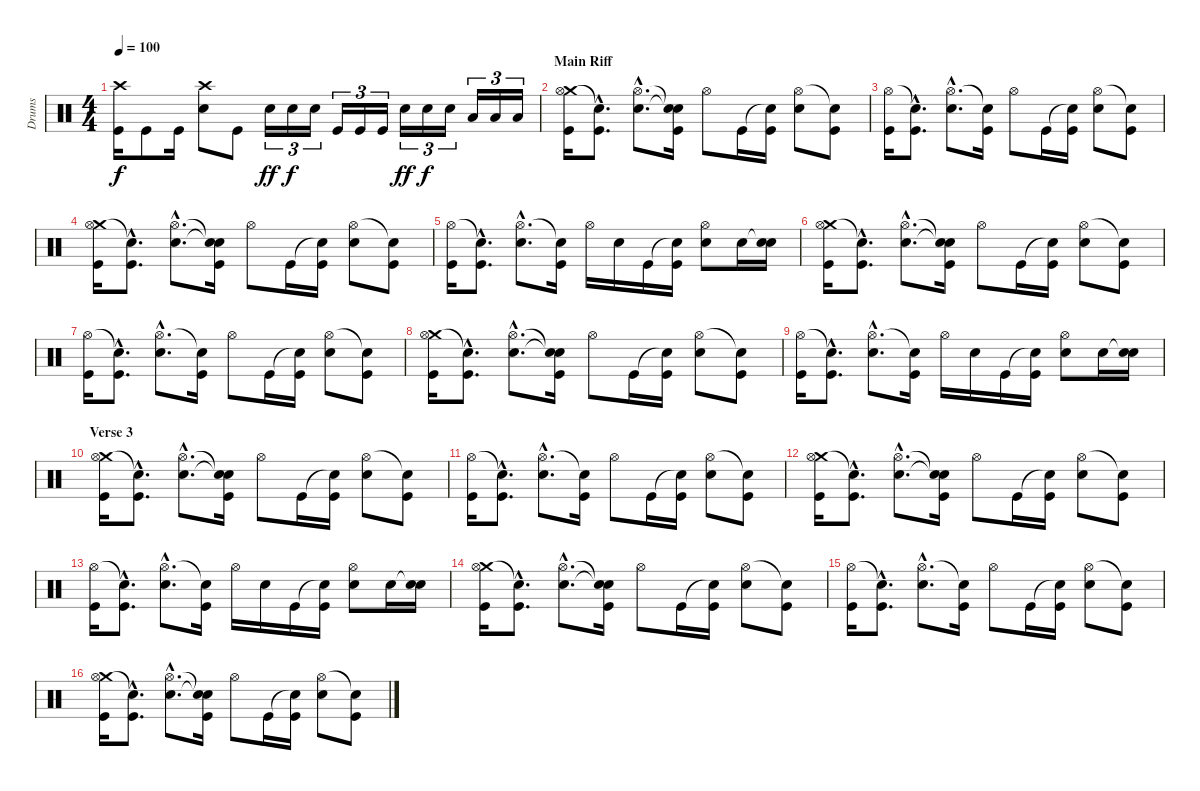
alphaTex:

\track ("Drums" "Drums") {instrument percussion}
\staff {score}
\articulation defaults
\ts (4 4)
\tempo 100
\clef neutral
\ks c
("Crash high (hit)" "Kick (hit)").16{dy f} "Kick (hit)".8 "Kick (hit)".16 ("Crash high (hit)" "Electric Snare (hit)").8 "Kick (hit)".8 "Electric Snare (hit)".16{tu (3 2) dy ff} "Electric Snare (hit)".16{tu (3 2) dy f} "Electric Snare (hit)".16{tu (3 2)} "Kick (hit)".16{tu (3 2)} "Kick (hit)".16{tu (3 2)} "Kick (hit)".16{tu (3 2)} "Electric Snare (hit)".16{tu (3 2) dy ff} "Electric Snare (hit)".16{tu (3 2) dy f} "Electric Snare (hit)".16{tu (3 2)} "Low Tom (hit)".16{tu (3 2)} "Low Tom (hit)".16{tu (3 2)} "Low Tom (hit)".16{tu (3 2)} |
\section ("" "Main Riff")
("Crash medium (hit)" "Hi-Hat (open)" "Kick (hit)").16 ("Snare (hit)"{hac t} "Kick (hit)"{hac}).8{d} ("Hi-Hat (open)"{hac} "Electric Snare (hit)"{hac}).8{d} ("Snare (hit)"{t} "Snare (hit)"{t} "Kick (hit)").16 "Hi-Hat (open)".8 "Kick (hit)".16 ("Snare (hit)"{t} "Kick (hit)").16 ("Hi-Hat (open)" "Electric Snare (hit)").8 ("Snare (hit)"{t} "Kick (hit)").8 |
("Hi-Hat (open)" "Kick (hit)").16 ("Snare (hit)"{hac t} "Kick (hit)"{hac}).8{d} ("Hi-Hat (open)"{hac} "Electric Snare (hit)"{hac}).8{d} ("Snare (hit)"{t} "Kick (hit)").16 "Hi-Hat (open)".8 "Kick (hit)".16 ("Snare (hit)"{t} "Kick (hit)").16 ("Hi-Hat (open)" "Electric Snare (hit)").8 ("Snare (hit)"{t} "Kick (hit)").8 |
("Crash medium (hit)" "Hi-Hat (open)" "Kick (hit)").16 ("Snare (hit)"{hac t} "Kick (hit)"{hac}).8{d} ("Hi-Hat (open)"{hac} "Electric Snare (hit)"{hac}).8{d} ("Snare (hit)"{t} "Snare (hit)"{t} "Kick (hit)").16 "Hi-Hat (open)".8 "Kick (hit)".16 ("Snare (hit)"{t} "Kick (hit)").16 ("Hi-Hat (open)" "Electric Snare (hit)").8 ("Snare (hit)"{t} "Kick (hit)").8 |
("Hi-Hat (open)" "Kick (hit)").16 ("Snare (hit)"{hac t} "Kick (hit)"{hac}).8{d} ("Hi-Hat (open)"{hac} "Electric Snare (hit)"{hac}).8{d} ("Snare (hit)"{t} "Kick (hit)").16 "Hi-Hat (open)".16 "Electric Snare (hit)".16 "Kick (hit)".16 ("Snare (hit)"{t} "Kick (hit)").16 ("Hi-Hat (open)" "Electric Snare (hit)").8 "Electric Snare (hit)".16 ("Snare (hit)"{t} "Electric Snare (hit)").16 |
("Crash medium (hit)" "Hi-Hat (open)" "Kick (hit)").16 ("Snare (hit)"{hac t} "Kick (hit)"{hac}).8{d} ("Hi-Hat (open)"{hac} "Electric Snare (hit)"{hac}).8{d} ("Snare (hit)"{t} "Snare (hit)"{t} "Kick (hit)").16 "Hi-Hat (open)".8 "Kick (hit)".16 ("Snare (hit)"{t} "Kick (hit)").16 ("Hi-Hat (open)" "Electric Snare (hit)").8 ("Snare (hit)"{t} "Kick (hit)").8 |
("Hi-Hat (open)" "Kick (hit)").16 ("Snare (hit)"{hac t} "Kick (hit)"{hac}).8{d} ("Hi-Hat (open)"{hac} "Electric Snare (hit)"{hac}).8{d} ("Snare (hit)"{t} "Kick (hit)").16 "Hi-Hat (open)".8 "Kick (hit)".16 ("Snare (hit)"{t} "Kick (hit)").16 ("Hi-Hat (open)" "Electric Snare (hit)").8 ("Snare (hit)"{t} "Kick (hit)").8 |
("Crash medium (hit)" "Hi-Hat (open)" "Kick (hit)").16 ("Snare (hit)"{hac t} "Kick (hit)"{hac}).8{d} ("Hi-Hat (open)"{hac} "Electric Snare (hit)"{hac}).8{d} ("Snare (hit)"{t} "Snare (hit)"{t} "Kick (hit)").16 "Hi-Hat (open)".8 "Kick (hit)".16 ("Snare (hit)"{t} "Kick (hit)").16 ("Hi-Hat (open)" "Electric Snare (hit)").8 ("Snare (hit)"{t} "Kick (hit)").8 |
("Hi-Hat (open)" "Kick (hit)").16 ("Snare (hit)"{hac t} "Kick (hit)"{hac}).8{d} ("Hi-Hat (open)"{hac} "Electric Snare (hit)"{hac}).8{d} ("Snare (hit)"{t} "Kick (hit)").16 "Hi-Hat (open)".16 "Electric Snare (hit)".16 "Kick (hit)".16 ("Snare (hit)"{t} "Kick (hit)").16 ("Hi-Hat (open)" "Electric Snare (hit)").8 "Electric Snare (hit)".16 ("Snare (hit)"{t} "Electric Snare (hit)").16 |
\section ("" "Verse 3")
("Crash medium (hit)" "Hi-Hat (open)" "Kick (hit)").16 ("Snare (hit)"{hac t} "Kick (hit)"{hac}).8{d} ("Hi-Hat (open)"{hac} "Electric Snare (hit)"{hac}).8{d} ("Snare (hit)"{t} "Snare (hit)"{t} "Kick (hit)").16 "Hi-Hat (open)".8 "Kick (hit)".16 ("Snare (hit)"{t} "Kick (hit)").16 ("Hi-Hat (open)" "Electric Snare (hit)").8 ("Snare (hit)"{t} "Kick (hit)").8 |
("Hi-Hat (open)" "Kick (hit)").16 ("Snare (hit)"{hac t} "Kick (hit)"{hac}).8{d} ("Hi-Hat (open)"{hac} "Electric Snare (hit)"{hac}).8{d} ("Snare (hit)"{t} "Kick (hit)").16 "Hi-Hat (open)".8 "Kick (hit)".16 ("Snare (hit)"{t} "Kick (hit)").16 ("Hi-Hat (open)" "Electric Snare (hit)").8 ("Snare (hit)"{t} "Kick (hit)").8 |
("Crash medium (hit)" "Hi-Hat (open)" "Kick (hit)").16 ("Snare (hit)"{hac t} "Kick (hit)"{hac}).8{d} ("Hi-Hat (open)"{hac} "Electric Snare (hit)"{hac}).8{d} ("Snare (hit)"{t} "Snare (hit)"{t} "Kick (hit)").16 "Hi-Hat (open)".8 "Kick (hit)".16 ("Snare (hit)"{t} "Kick (hit)").16 ("Hi-Hat (open)" "Electric Snare (hit)").8 ("Snare (hit)"{t} "Kick (hit)").8 |
("Hi-Hat (open)" "Kick (hit)").16 ("Snare (hit)"{hac t} "Kick (hit)"{hac}).8{d} ("Hi-Hat (open)"{hac} "Electric Snare (hit)"{hac}).8{d} ("Snare (hit)"{t} "Kick (hit)").16 "Hi-Hat (open)".16 "Electric Snare (hit)".16 "Kick (hit)".16 ("Snare (hit)"{t} "Kick (hit)").16 ("Hi-Hat (open)" "Electric Snare (hit)").8 "Electric Snare (hit)".16 ("Snare (hit)"{t} "Electric Snare (hit)").16 |
("Crash medium (hit)" "Hi-Hat (open)" "Kick (hit)").16 ("Snare (hit)"{hac t} "Kick (hit)"{hac}).8{d} ("Hi-Hat (open)"{hac} "Electric Snare (hit)"{hac}).8{d} ("Snare (hit)"{t} "Snare (hit)"{t} "Kick (hit)").16 "Hi-Hat (open)".8 "Kick (hit)".16 ("Snare (hit)"{t} "Kick (hit)").16 ("Hi-Hat (open)" "Electric Snare (hit)").8 ("Snare (hit)"{t} "Kick (hit)").8 |
("Hi-Hat (open)" "Kick (hit)").16 ("Snare (hit)"{hac t} "Kick (hit)"{hac}).8{d} ("Hi-Hat (open)"{hac} "Electric Snare (hit)"{hac}).8{d} ("Snare (hit)"{t} "Kick (hit)").16 "Hi-Hat (open)".8 "Kick (hit)".16 ("Snare (hit)"{t} "Kick (hit)").16 ("Hi-Hat (open)" "Electric Snare (hit)").8 ("Snare (hit)"{t} "Kick (hit)").8 |
("Crash medium (hit)" "Hi-Hat (open)" "Kick (hit)").16 ("Snare (hit)"{hac t} "Kick (hit)"{hac}).8{d} ("Hi-Hat (open)"{hac} "Electric Snare (hit)"{hac}).8{d} ("Snare (hit)"{t} "Snare (hit)"{t} "Kick (hit)").16 "Hi-Hat (open)".8 "Kick (hit)".16 ("Snare (hit)"{t} "Kick (hit)").16 ("Hi-Hat (open)" "Electric Snare (hit)").8 ("Snare (hit)"{t} "Kick (hit)").8
